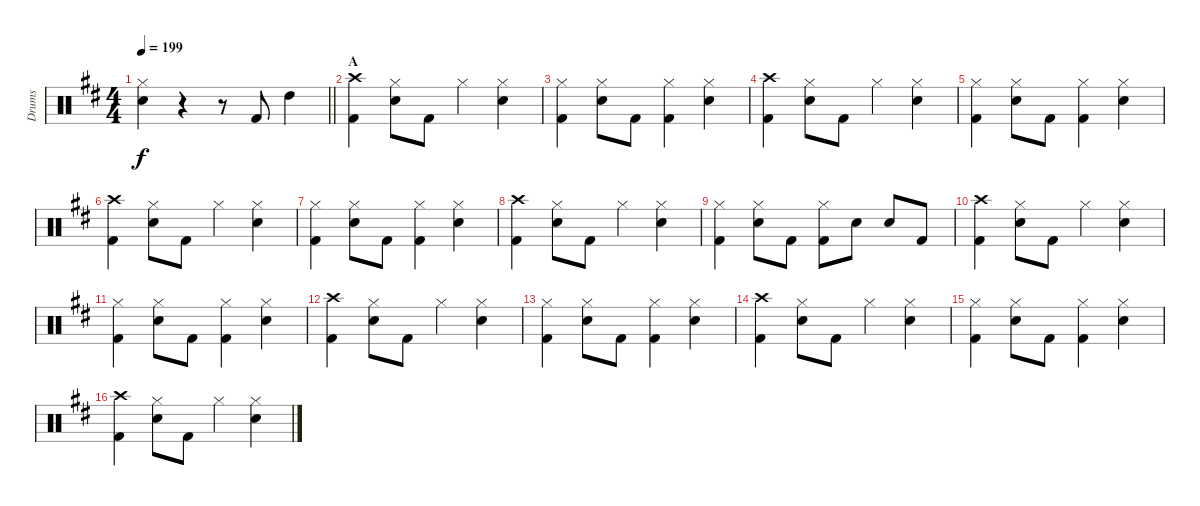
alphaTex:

\track ("Drums" "Drums") {instrument percussion}
\staff {score}
\articulation defaults
\ts (4 4)
\tempo 199
\clef neutral
\barLineRight lightlight
\ks d
("Hi-Hat (closed)" "Snare (hit) 2").4{dy f} r.4 r.8 "Kick (hit) 2".8 "High Tom (hit)".4 |
\section ("" "A")
("Crash high (hit)" "Kick (hit) 2").4 ("Hi-Hat (closed)" "Snare (hit) 2").8 "Kick (hit) 2".8 "Hi-Hat (closed)".4 ("Hi-Hat (closed)" "Snare (hit) 2").4 |
("Hi-Hat (closed)" "Kick (hit) 2").4 ("Hi-Hat (closed)" "Snare (hit) 2").8 "Kick (hit) 2".8 ("Hi-Hat (closed)" "Kick (hit) 2").4 ("Hi-Hat (closed)" "Snare (hit) 2").4 |
("Crash high (hit)" "Kick (hit) 2").4 ("Hi-Hat (closed)" "Snare (hit) 2").8 "Kick (hit) 2".8 "Hi-Hat (closed)".4 ("Hi-Hat (closed)" "Snare (hit) 2").4 |
("Hi-Hat (closed)" "Kick (hit) 2").4 ("Hi-Hat (closed)" "Snare (hit) 2").8 "Kick (hit) 2".8 ("Hi-Hat (closed)" "Kick (hit) 2").4 ("Hi-Hat (closed)" "Snare (hit) 2").4 |
("Crash high (hit)" "Kick (hit) 2").4 ("Hi-Hat (closed)" "Snare (hit) 2").8 "Kick (hit) 2".8 "Hi-Hat (closed)".4 ("Hi-Hat (closed)" "Snare (hit) 2").4 |
("Hi-Hat (closed)" "Kick (hit) 2").4 ("Hi-Hat (closed)" "Snare (hit) 2").8 "Kick (hit) 2".8 ("Hi-Hat (closed)" "Kick (hit) 2").4 ("Hi-Hat (closed)" "Snare (hit) 2").4 |
("Crash high (hit)" "Kick (hit) 2").4 ("Hi-Hat (closed)" "Snare (hit) 2").8 "Kick (hit) 2".8 "Hi-Hat (closed)".4 ("Hi-Hat (closed)" "Snare (hit) 2").4 |
("Hi-Hat (closed)" "Kick (hit) 2").4 ("Hi-Hat (closed)" "Snare (hit) 2").8 "Kick (hit) 2".8 ("Hi-Hat (closed)" "Kick (hit) 2").8 "Snare (hit) 2".8 "Snare (hit) 2".8 "Kick (hit) 2".8 |
("Crash high (hit)" "Kick (hit) 2").4 ("Hi-Hat (closed)" "Snare (hit) 2").8 "Kick (hit) 2".8 "Hi-Hat (closed)".4 ("Hi-Hat (closed)" "Snare (hit) 2").4 |
("Hi-Hat (closed)" "Kick (hit) 2").4 ("Hi-Hat (closed)" "Snare (hit) 2").8 "Kick (hit) 2".8 ("Hi-Hat (closed)" "Kick (hit) 2").4 ("Hi-Hat (closed)" "Snare (hit) 2").4 |
("Crash high (hit)" "Kick (hit) 2").4 ("Hi-Hat (closed)" "Snare (hit) 2").8 "Kick (hit) 2".8 "Hi-Hat (closed)".4 ("Hi-Hat (closed)" "Snare (hit) 2").4 |
("Hi-Hat (closed)" "Kick (hit) 2").4 ("Hi-Hat (closed)" "Snare (hit) 2").8 "Kick (hit) 2".8 ("Hi-Hat (closed)" "Kick (hit) 2").4 ("Hi-Hat (closed)" "Snare (hit) 2").4 |
("Crash high (hit)" "Kick (hit) 2").4 ("Hi-Hat (closed)" "Snare (hit) 2").8 "Kick (hit) 2".8 "Hi-Hat (closed)".4 ("Hi-Hat (closed)" "Snare (hit) 2").4 |
("Hi-Hat (closed)" "Kick (hit) 2").4 ("Hi-Hat (closed)" "Snare (hit) 2").8 "Kick (hit) 2".8 ("Hi-Hat (closed)" "Kick (hit) 2").4 ("Hi-Hat (closed)" "Snare (hit) 2").4 |
("Crash high (hit)" "Kick (hit) 2").4 ("Hi-Hat (closed)" "Snare (hit) 2").8 "Kick (hit) 2".8 "Hi-Hat (closed)".4 ("Hi-Hat (closed)" "Snare (hit) 2").4
